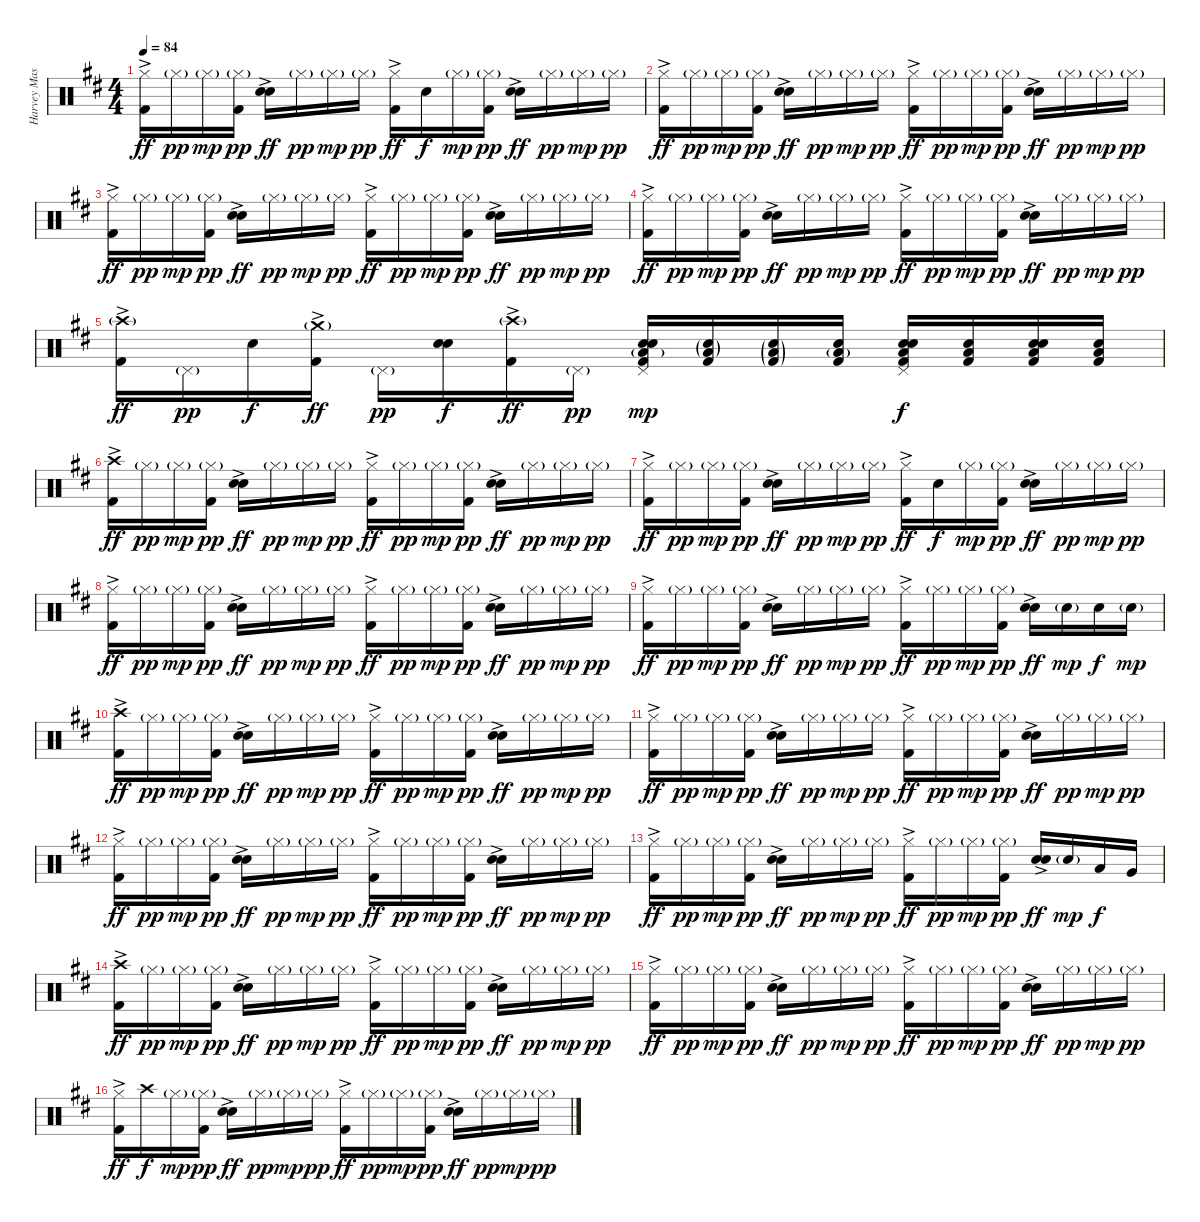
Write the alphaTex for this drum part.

\track ("Harvey Mason" "Harvey Mas") {instrument percussion}
\staff {score}
\articulation defaults
\ts (4 4)
\tempo 84
\clef neutral
\ks d
("Hi-Hat (closed)" "Kick (hit) 2"{ac}).16{dy ff} "Hi-Hat (closed)"{g}.16{dy pp} "Hi-Hat (closed)"{g}.16{dy mp} ("Hi-Hat (closed)"{g} "Kick (hit) 2").16{dy pp} ("Electric Snare (hit)"{ac} "Snare (hit) 2").16{dy ff} "Hi-Hat (closed)"{g}.16{dy pp} "Hi-Hat (closed)"{g}.16{dy mp} "Hi-Hat (closed)"{g}.16{dy pp} ("Hi-Hat (closed)" "Kick (hit) 2"{ac}).16{dy ff} "Snare (hit) 2".16{dy f} "Hi-Hat (closed)"{g}.16{dy mp} ("Hi-Hat (closed)"{g} "Kick (hit) 2").16{dy pp} ("Electric Snare (hit)"{ac} "Snare (hit) 2").16{dy ff} "Hi-Hat (closed)"{g}.16{dy pp} "Hi-Hat (closed)"{g}.16{dy mp} "Hi-Hat (closed)"{g}.16{dy pp} |
("Hi-Hat (closed)" "Kick (hit) 2"{ac}).16{dy ff} "Hi-Hat (closed)"{g}.16{dy pp} "Hi-Hat (closed)"{g}.16{dy mp} ("Hi-Hat (closed)"{g} "Kick (hit) 2").16{dy pp} ("Electric Snare (hit)"{ac} "Snare (hit) 2").16{dy ff} "Hi-Hat (closed)"{g}.16{dy pp} "Hi-Hat (closed)"{g}.16{dy mp} "Hi-Hat (closed)"{g}.16{dy pp} ("Hi-Hat (closed)" "Kick (hit) 2"{ac}).16{dy ff} "Hi-Hat (closed)"{g}.16{dy pp} "Hi-Hat (closed)"{g}.16{dy mp} ("Hi-Hat (closed)"{g} "Kick (hit) 2").16{dy pp} ("Electric Snare (hit)"{ac} "Snare (hit) 2").16{dy ff} "Hi-Hat (closed)"{g}.16{dy pp} "Hi-Hat (closed)"{g}.16{dy mp} "Hi-Hat (closed)"{g}.16{dy pp} |
("Hi-Hat (closed)" "Kick (hit) 2"{ac}).16{dy ff} "Hi-Hat (closed)"{g}.16{dy pp} "Hi-Hat (closed)"{g}.16{dy mp} ("Hi-Hat (closed)"{g} "Kick (hit) 2").16{dy pp} ("Electric Snare (hit)"{ac} "Snare (hit) 2").16{dy ff} "Hi-Hat (closed)"{g}.16{dy pp} "Hi-Hat (closed)"{g}.16{dy mp} "Hi-Hat (closed)"{g}.16{dy pp} ("Hi-Hat (closed)" "Kick (hit) 2"{ac}).16{dy ff} "Hi-Hat (closed)"{g}.16{dy pp} "Hi-Hat (closed)"{g}.16{dy mp} ("Hi-Hat (closed)"{g} "Kick (hit) 2").16{dy pp} ("Electric Snare (hit)"{ac} "Snare (hit) 2").16{dy ff} "Hi-Hat (closed)"{g}.16{dy pp} "Hi-Hat (closed)"{g}.16{dy mp} "Hi-Hat (closed)"{g}.16{dy pp} |
("Hi-Hat (closed)" "Kick (hit) 2"{ac}).16{dy ff} "Hi-Hat (closed)"{g}.16{dy pp} "Hi-Hat (closed)"{g}.16{dy mp} ("Hi-Hat (closed)"{g} "Kick (hit) 2").16{dy pp} ("Electric Snare (hit)"{ac} "Snare (hit) 2").16{dy ff} "Hi-Hat (closed)"{g}.16{dy pp} "Hi-Hat (closed)"{g}.16{dy mp} "Hi-Hat (closed)"{g}.16{dy pp} ("Hi-Hat (closed)" "Kick (hit) 2"{ac}).16{dy ff} "Hi-Hat (closed)"{g}.16{dy pp} "Hi-Hat (closed)"{g}.16{dy mp} ("Hi-Hat (closed)"{g} "Kick (hit) 2").16{dy pp} ("Electric Snare (hit)"{ac} "Snare (hit) 2").16{dy ff} "Hi-Hat (closed)"{g}.16{dy pp} "Hi-Hat (closed)"{g}.16{dy mp} "Hi-Hat (closed)"{g}.16{dy pp} |
("Crash high (hit)"{g} "Kick (hit) 2"{ac}).16{dy ff} "Pedal Hi-Hat (hit)"{g}.16{dy pp} "Snare (hit) 2".16{dy f} ("Crash medium (hit)"{g} "Kick (hit) 2"{ac}).16{dy ff} "Pedal Hi-Hat (hit)"{g}.16{dy pp} ("Electric Snare (hit)" "Snare (hit) 2").16{dy f} ("Crash high (hit)"{g} "Kick (hit) 2"{ac}).16{dy ff} "Pedal Hi-Hat (hit)"{g}.16{dy pp} ("Pedal Hi-Hat (hit)" "Low Floor Tom (hit)"{g} "Electric Snare (hit)" "Snare (hit) 2" "Kick (hit) 2").16{dy mp} ("Low Floor Tom (hit)"{g} "Snare (hit) 2"{g} "Kick (hit) 2").16 ("Low Floor Tom (hit)"{g} "Snare (hit) 2"{g} "Kick (hit) 2"{g}).16 ("Low Floor Tom (hit)"{g} "Snare (hit) 2" "Kick (hit) 2").16 ("Pedal Hi-Hat (hit)" "Low Floor Tom (hit)" "Electric Snare (hit)" "Snare (hit) 2" "Kick (hit) 2").16{dy f} ("Low Floor Tom (hit)" "Snare (hit) 2" "Kick (hit) 2").16 ("Low Floor Tom (hit)" "Electric Snare (hit)" "Snare (hit) 2" "Kick (hit) 2").16 ("Low Floor Tom (hit)" "Snare (hit) 2" "Kick (hit) 2").16 |
("Crash high (hit)" "Kick (hit) 2"{ac}).16{dy ff} "Hi-Hat (closed)"{g}.16{dy pp} "Hi-Hat (closed)"{g}.16{dy mp} ("Hi-Hat (closed)"{g} "Kick (hit) 2").16{dy pp} ("Electric Snare (hit)"{ac} "Snare (hit) 2").16{dy ff} "Hi-Hat (closed)"{g}.16{dy pp} "Hi-Hat (closed)"{g}.16{dy mp} "Hi-Hat (closed)"{g}.16{dy pp} ("Hi-Hat (closed)" "Kick (hit) 2"{ac}).16{dy ff} "Hi-Hat (closed)"{g}.16{dy pp} "Hi-Hat (closed)"{g}.16{dy mp} ("Hi-Hat (closed)"{g} "Kick (hit) 2").16{dy pp} ("Electric Snare (hit)"{ac} "Snare (hit) 2").16{dy ff} "Hi-Hat (closed)"{g}.16{dy pp} "Hi-Hat (closed)"{g}.16{dy mp} "Hi-Hat (closed)"{g}.16{dy pp} |
("Hi-Hat (closed)" "Kick (hit) 2"{ac}).16{dy ff} "Hi-Hat (closed)"{g}.16{dy pp} "Hi-Hat (closed)"{g}.16{dy mp} ("Hi-Hat (closed)"{g} "Kick (hit) 2").16{dy pp} ("Electric Snare (hit)"{ac} "Snare (hit) 2").16{dy ff} "Hi-Hat (closed)"{g}.16{dy pp} "Hi-Hat (closed)"{g}.16{dy mp} "Hi-Hat (closed)"{g}.16{dy pp} ("Hi-Hat (closed)" "Kick (hit) 2"{ac}).16{dy ff} "Snare (hit) 2".16{dy f} "Hi-Hat (closed)"{g}.16{dy mp} ("Hi-Hat (closed)"{g} "Kick (hit) 2").16{dy pp} ("Electric Snare (hit)"{ac} "Snare (hit) 2").16{dy ff} "Hi-Hat (closed)"{g}.16{dy pp} "Hi-Hat (closed)"{g}.16{dy mp} "Hi-Hat (closed)"{g}.16{dy pp} |
("Hi-Hat (closed)" "Kick (hit) 2"{ac}).16{dy ff} "Hi-Hat (closed)"{g}.16{dy pp} "Hi-Hat (closed)"{g}.16{dy mp} ("Hi-Hat (closed)"{g} "Kick (hit) 2").16{dy pp} ("Electric Snare (hit)"{ac} "Snare (hit) 2").16{dy ff} "Hi-Hat (closed)"{g}.16{dy pp} "Hi-Hat (closed)"{g}.16{dy mp} "Hi-Hat (closed)"{g}.16{dy pp} ("Hi-Hat (closed)" "Kick (hit) 2"{ac}).16{dy ff} "Hi-Hat (closed)"{g}.16{dy pp} "Hi-Hat (closed)"{g}.16{dy mp} ("Hi-Hat (closed)"{g} "Kick (hit) 2").16{dy pp} ("Electric Snare (hit)"{ac} "Snare (hit) 2").16{dy ff} "Hi-Hat (closed)"{g}.16{dy pp} "Hi-Hat (closed)"{g}.16{dy mp} "Hi-Hat (closed)"{g}.16{dy pp} |
("Hi-Hat (closed)" "Kick (hit) 2"{ac}).16{dy ff} "Hi-Hat (closed)"{g}.16{dy pp} "Hi-Hat (closed)"{g}.16{dy mp} ("Hi-Hat (closed)"{g} "Kick (hit) 2").16{dy pp} ("Electric Snare (hit)"{ac} "Snare (hit) 2").16{dy ff} "Hi-Hat (closed)"{g}.16{dy pp} "Hi-Hat (closed)"{g}.16{dy mp} "Hi-Hat (closed)"{g}.16{dy pp} ("Hi-Hat (closed)" "Kick (hit) 2"{ac}).16{dy ff} "Hi-Hat (closed)"{g}.16{dy pp} "Hi-Hat (closed)"{g}.16{dy mp} ("Hi-Hat (closed)"{g} "Kick (hit) 2").16{dy pp} ("Electric Snare (hit)"{ac} "Snare (hit) 2").16{dy ff} "Snare (hit) 2"{g}.16{dy mp} "Snare (hit) 2".16{dy f} "Snare (hit) 2"{g}.16{dy mp} |
("Crash high (hit)" "Kick (hit) 2"{ac}).16{dy ff} "Hi-Hat (closed)"{g}.16{dy pp} "Hi-Hat (closed)"{g}.16{dy mp} ("Hi-Hat (closed)"{g} "Kick (hit) 2").16{dy pp} ("Electric Snare (hit)"{ac} "Snare (hit) 2").16{dy ff} "Hi-Hat (closed)"{g}.16{dy pp} "Hi-Hat (closed)"{g}.16{dy mp} "Hi-Hat (closed)"{g}.16{dy pp} ("Hi-Hat (closed)" "Kick (hit) 2"{ac}).16{dy ff} "Hi-Hat (closed)"{g}.16{dy pp} "Hi-Hat (closed)"{g}.16{dy mp} ("Hi-Hat (closed)"{g} "Kick (hit) 2").16{dy pp} ("Electric Snare (hit)"{ac} "Snare (hit) 2").16{dy ff} "Hi-Hat (closed)"{g}.16{dy pp} "Hi-Hat (closed)"{g}.16{dy mp} "Hi-Hat (closed)"{g}.16{dy pp} |
("Hi-Hat (closed)" "Kick (hit) 2"{ac}).16{dy ff} "Hi-Hat (closed)"{g}.16{dy pp} "Hi-Hat (closed)"{g}.16{dy mp} ("Hi-Hat (closed)"{g} "Kick (hit) 2").16{dy pp} ("Electric Snare (hit)"{ac} "Snare (hit) 2").16{dy ff} "Hi-Hat (closed)"{g}.16{dy pp} "Hi-Hat (closed)"{g}.16{dy mp} "Hi-Hat (closed)"{g}.16{dy pp} ("Hi-Hat (closed)" "Kick (hit) 2"{ac}).16{dy ff} "Hi-Hat (closed)"{g}.16{dy pp} "Hi-Hat (closed)"{g}.16{dy mp} ("Hi-Hat (closed)"{g} "Kick (hit) 2").16{dy pp} ("Electric Snare (hit)"{ac} "Snare (hit) 2").16{dy ff} "Hi-Hat (closed)"{g}.16{dy pp} "Hi-Hat (closed)"{g}.16{dy mp} "Hi-Hat (closed)"{g}.16{dy pp} |
("Hi-Hat (closed)" "Kick (hit) 2"{ac}).16{dy ff} "Hi-Hat (closed)"{g}.16{dy pp} "Hi-Hat (closed)"{g}.16{dy mp} ("Hi-Hat (closed)"{g} "Kick (hit) 2").16{dy pp} ("Electric Snare (hit)"{ac} "Snare (hit) 2").16{dy ff} "Hi-Hat (closed)"{g}.16{dy pp} "Hi-Hat (closed)"{g}.16{dy mp} "Hi-Hat (closed)"{g}.16{dy pp} ("Hi-Hat (closed)" "Kick (hit) 2"{ac}).16{dy ff} "Hi-Hat (closed)"{g}.16{dy pp} "Hi-Hat (closed)"{g}.16{dy mp} ("Hi-Hat (closed)"{g} "Kick (hit) 2").16{dy pp} ("Electric Snare (hit)"{ac} "Snare (hit) 2").16{dy ff} "Hi-Hat (closed)"{g}.16{dy pp} "Hi-Hat (closed)"{g}.16{dy mp} "Hi-Hat (closed)"{g}.16{dy pp} |
("Hi-Hat (closed)" "Kick (hit) 2"{ac}).16{dy ff} "Hi-Hat (closed)"{g}.16{dy pp} "Hi-Hat (closed)"{g}.16{dy mp} ("Hi-Hat (closed)"{g} "Kick (hit) 2").16{dy pp} ("Electric Snare (hit)"{ac} "Snare (hit) 2").16{dy ff} "Hi-Hat (closed)"{g}.16{dy pp} "Hi-Hat (closed)"{g}.16{dy mp} "Hi-Hat (closed)"{g}.16{dy pp} ("Hi-Hat (closed)" "Kick (hit) 2"{ac}).16{dy ff} "Hi-Hat (closed)"{g}.16{dy pp} "Hi-Hat (closed)"{g}.16{dy mp} ("Hi-Hat (closed)"{g} "Kick (hit) 2").16{dy pp} ("Electric Snare (hit)"{ac} "Snare (hit) 2").16{dy ff} "Snare (hit) 2"{g}.16{dy mp} "Low Tom (hit)".16{dy f} "Very Low Tom (hit)".16 |
("Crash high (hit)" "Kick (hit) 2"{ac}).16{dy ff} "Hi-Hat (closed)"{g}.16{dy pp} "Hi-Hat (closed)"{g}.16{dy mp} ("Hi-Hat (closed)"{g} "Kick (hit) 2").16{dy pp} ("Electric Snare (hit)"{ac} "Snare (hit) 2").16{dy ff} "Hi-Hat (closed)"{g}.16{dy pp} "Hi-Hat (closed)"{g}.16{dy mp} "Hi-Hat (closed)"{g}.16{dy pp} ("Hi-Hat (closed)" "Kick (hit) 2"{ac}).16{dy ff} "Hi-Hat (closed)"{g}.16{dy pp} "Hi-Hat (closed)"{g}.16{dy mp} ("Hi-Hat (closed)"{g} "Kick (hit) 2").16{dy pp} ("Electric Snare (hit)"{ac} "Snare (hit) 2").16{dy ff} "Hi-Hat (closed)"{g}.16{dy pp} "Hi-Hat (closed)"{g}.16{dy mp} "Hi-Hat (closed)"{g}.16{dy pp} |
("Hi-Hat (closed)" "Kick (hit) 2"{ac}).16{dy ff} "Hi-Hat (closed)"{g}.16{dy pp} "Hi-Hat (closed)"{g}.16{dy mp} ("Hi-Hat (closed)"{g} "Kick (hit) 2").16{dy pp} ("Electric Snare (hit)"{ac} "Snare (hit) 2").16{dy ff} "Hi-Hat (closed)"{g}.16{dy pp} "Hi-Hat (closed)"{g}.16{dy mp} "Hi-Hat (closed)"{g}.16{dy pp} ("Hi-Hat (closed)" "Kick (hit) 2"{ac}).16{dy ff} "Hi-Hat (closed)"{g}.16{dy pp} "Hi-Hat (closed)"{g}.16{dy mp} ("Hi-Hat (closed)"{g} "Kick (hit) 2").16{dy pp} ("Electric Snare (hit)"{ac} "Snare (hit) 2").16{dy ff} "Hi-Hat (closed)"{g}.16{dy pp} "Hi-Hat (closed)"{g}.16{dy mp} "Hi-Hat (closed)"{g}.16{dy pp} |
("Hi-Hat (closed)" "Kick (hit) 2"{ac}).16{dy ff} "Crash high (hit)".16{dy f} "Hi-Hat (closed)"{g}.16{dy mp} ("Hi-Hat (closed)"{g} "Kick (hit) 2").16{dy pp} ("Electric Snare (hit)"{ac} "Snare (hit) 2").16{dy ff} "Hi-Hat (closed)"{g}.16{dy pp} "Hi-Hat (closed)"{g}.16{dy mp} "Hi-Hat (closed)"{g}.16{dy pp} ("Hi-Hat (closed)" "Kick (hit) 2"{ac}).16{dy ff} "Hi-Hat (closed)"{g}.16{dy pp} "Hi-Hat (closed)"{g}.16{dy mp} ("Hi-Hat (closed)"{g} "Kick (hit) 2").16{dy pp} ("Electric Snare (hit)"{ac} "Snare (hit) 2").16{dy ff} "Hi-Hat (closed)"{g}.16{dy pp} "Hi-Hat (closed)"{g}.16{dy mp} "Hi-Hat (closed)"{g}.16{dy pp}
